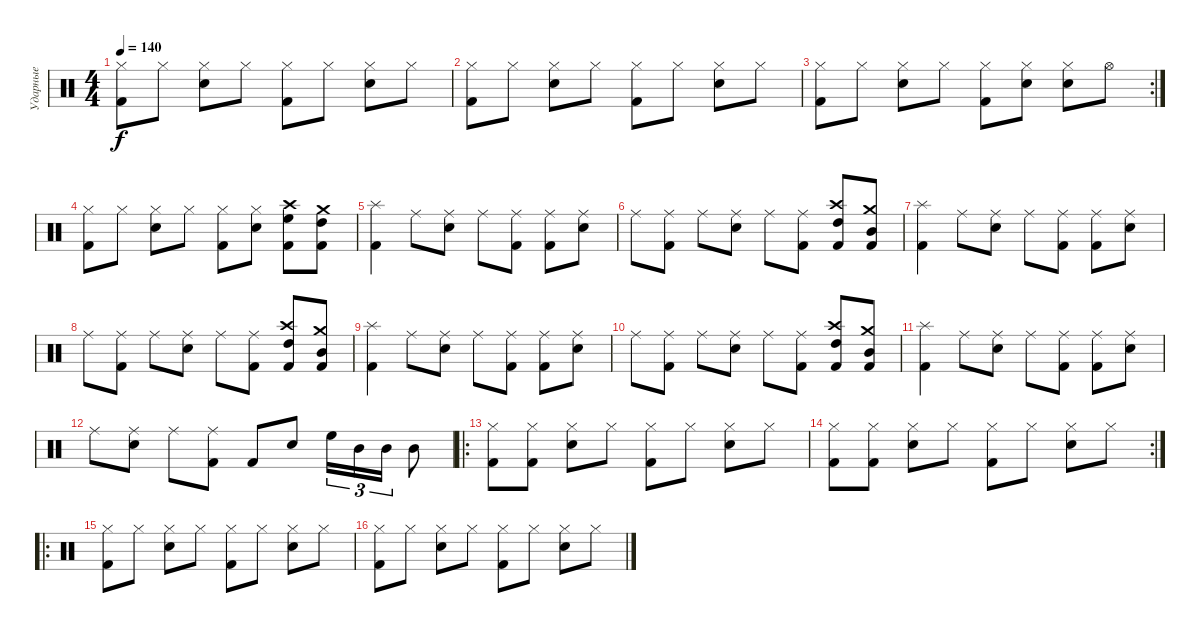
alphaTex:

\track ("Ударные" "Ударные") {instrument percussion}
\staff {score}
\articulation defaults
\ts (4 4)
\tempo 140
\clef neutral
\ks c
("Hi-Hat (closed)" "Kick (hit) 2").8{dy f} "Hi-Hat (closed)".8 ("Hi-Hat (closed)" "Snare (hit) 2").8 "Hi-Hat (closed)".8 ("Hi-Hat (closed)" "Kick (hit) 2").8 "Hi-Hat (closed)".8 ("Hi-Hat (closed)" "Snare (hit) 2").8 "Hi-Hat (closed)".8 |
("Hi-Hat (closed)" "Kick (hit) 2").8 "Hi-Hat (closed)".8 ("Hi-Hat (closed)" "Snare (hit) 2").8 "Hi-Hat (closed)".8 ("Hi-Hat (closed)" "Kick (hit) 2").8 "Hi-Hat (closed)".8 ("Hi-Hat (closed)" "Snare (hit) 2").8 "Hi-Hat (closed)".8 |
\rc 2
("Hi-Hat (closed)" "Kick (hit) 2").8 "Hi-Hat (closed)".8 ("Hi-Hat (closed)" "Snare (hit) 2").8 "Hi-Hat (closed)".8 ("Hi-Hat (closed)" "Kick (hit) 2").8 ("Hi-Hat (closed)" "Snare (hit) 2").8 ("Hi-Hat (closed)" "Snare (hit) 2").8 "Hi-Hat (open)".8 |
("Hi-Hat (closed)" "Kick (hit) 2").8 "Hi-Hat (closed)".8 ("Hi-Hat (closed)" "Snare (hit) 2").8 "Hi-Hat (closed)".8 ("Hi-Hat (closed)" "Kick (hit) 2").8 ("Hi-Hat (closed)" "Snare (hit) 2").8 ("Kick (hit) 2" "Crash high (hit)" "High Floor Tom (hit)").8 ("Kick (hit) 2" "Crash medium (hit)" "High Tom (hit)").8 |
("Kick (hit) 2" "Splash (hit)").4 "Ride (middle)".8 ("Ride (middle)" "Snare (hit) 2").8 "Ride (middle)".8 ("Ride (middle)" "Kick (hit) 2").8 ("Ride (middle)" "Kick (hit) 2").8 ("Ride (middle)" "Snare (hit) 2").8 |
"Ride (middle)".8 ("Ride (middle)" "Kick (hit) 2").8 "Ride (middle)".8 ("Ride (middle)" "Snare (hit) 2").8 "Ride (middle)".8 ("Ride (middle)" "Kick (hit) 2").8 ("Kick (hit) 2" "Crash high (hit)" "High Tom (hit)").8 ("Kick (hit) 2" "Crash medium (hit)" "Mid Tom (hit)").8 |
("Kick (hit) 2" "Splash (hit)").4 "Ride (middle)".8 ("Ride (middle)" "Snare (hit) 2").8 "Ride (middle)".8 ("Ride (middle)" "Kick (hit) 2").8 ("Ride (middle)" "Kick (hit) 2").8 ("Ride (middle)" "Snare (hit) 2").8 |
"Ride (middle)".8 ("Ride (middle)" "Kick (hit) 2").8 "Ride (middle)".8 ("Ride (middle)" "Snare (hit) 2").8 "Ride (middle)".8 ("Ride (middle)" "Kick (hit) 2").8 ("Kick (hit) 2" "Crash high (hit)" "High Tom (hit)").8 ("Kick (hit) 2" "Crash medium (hit)" "Mid Tom (hit)").8 |
("Kick (hit) 2" "Splash (hit)").4 "Ride (middle)".8 ("Ride (middle)" "Snare (hit) 2").8 "Ride (middle)".8 ("Ride (middle)" "Kick (hit) 2").8 ("Ride (middle)" "Kick (hit) 2").8 ("Ride (middle)" "Snare (hit) 2").8 |
"Ride (middle)".8 ("Ride (middle)" "Kick (hit) 2").8 "Ride (middle)".8 ("Ride (middle)" "Snare (hit) 2").8 "Ride (middle)".8 ("Ride (middle)" "Kick (hit) 2").8 ("Kick (hit) 2" "Crash high (hit)" "High Tom (hit)").8 ("Kick (hit) 2" "Crash medium (hit)" "Mid Tom (hit)").8 |
("Kick (hit) 2" "Splash (hit)").4 "Ride (middle)".8 ("Ride (middle)" "Snare (hit) 2").8 "Ride (middle)".8 ("Ride (middle)" "Kick (hit) 2").8 ("Ride (middle)" "Kick (hit) 2").8 ("Ride (middle)" "Snare (hit) 2").8 |
"Ride (middle)".8 ("Ride (middle)" "Snare (hit) 2").8 "Ride (middle)".8 ("Ride (middle)" "Kick (hit) 2").8 "Kick (hit) 2".8 "Snare (hit) 2".8 "High Floor Tom (hit)".16{tu (3 2)} "Mid Tom (hit)".16{tu (3 2)} "Mid Tom (hit)".16{tu (3 2)} "Mid Tom (hit)".8 |
\ro
("Hi-Hat (closed)" "Kick (hit) 2").8 ("Hi-Hat (closed)" "Kick (hit) 2").8 ("Hi-Hat (closed)" "Snare (hit) 2").8 "Hi-Hat (closed)".8 ("Hi-Hat (closed)" "Kick (hit) 2").8 "Hi-Hat (closed)".8 ("Hi-Hat (closed)" "Snare (hit) 2").8 "Hi-Hat (closed)".8 |
\rc 2
("Hi-Hat (closed)" "Kick (hit) 2").8 ("Hi-Hat (closed)" "Kick (hit) 2").8 ("Hi-Hat (closed)" "Snare (hit) 2").8 "Hi-Hat (closed)".8 ("Hi-Hat (closed)" "Kick (hit) 2").8 "Hi-Hat (closed)".8 ("Hi-Hat (closed)" "Snare (hit) 2").8 "Hi-Hat (closed)".8 |
\ro
("Hi-Hat (closed)" "Kick (hit) 2").8 "Hi-Hat (closed)".8 ("Hi-Hat (closed)" "Snare (hit) 2").8 "Hi-Hat (closed)".8 ("Hi-Hat (closed)" "Kick (hit) 2").8 "Hi-Hat (closed)".8 ("Hi-Hat (closed)" "Snare (hit) 2").8 "Hi-Hat (closed)".8 |
("Hi-Hat (closed)" "Kick (hit) 2").8 "Hi-Hat (closed)".8 ("Hi-Hat (closed)" "Snare (hit) 2").8 "Hi-Hat (closed)".8 ("Hi-Hat (closed)" "Kick (hit) 2").8 "Hi-Hat (closed)".8 ("Hi-Hat (closed)" "Snare (hit) 2").8 "Hi-Hat (closed)".8
